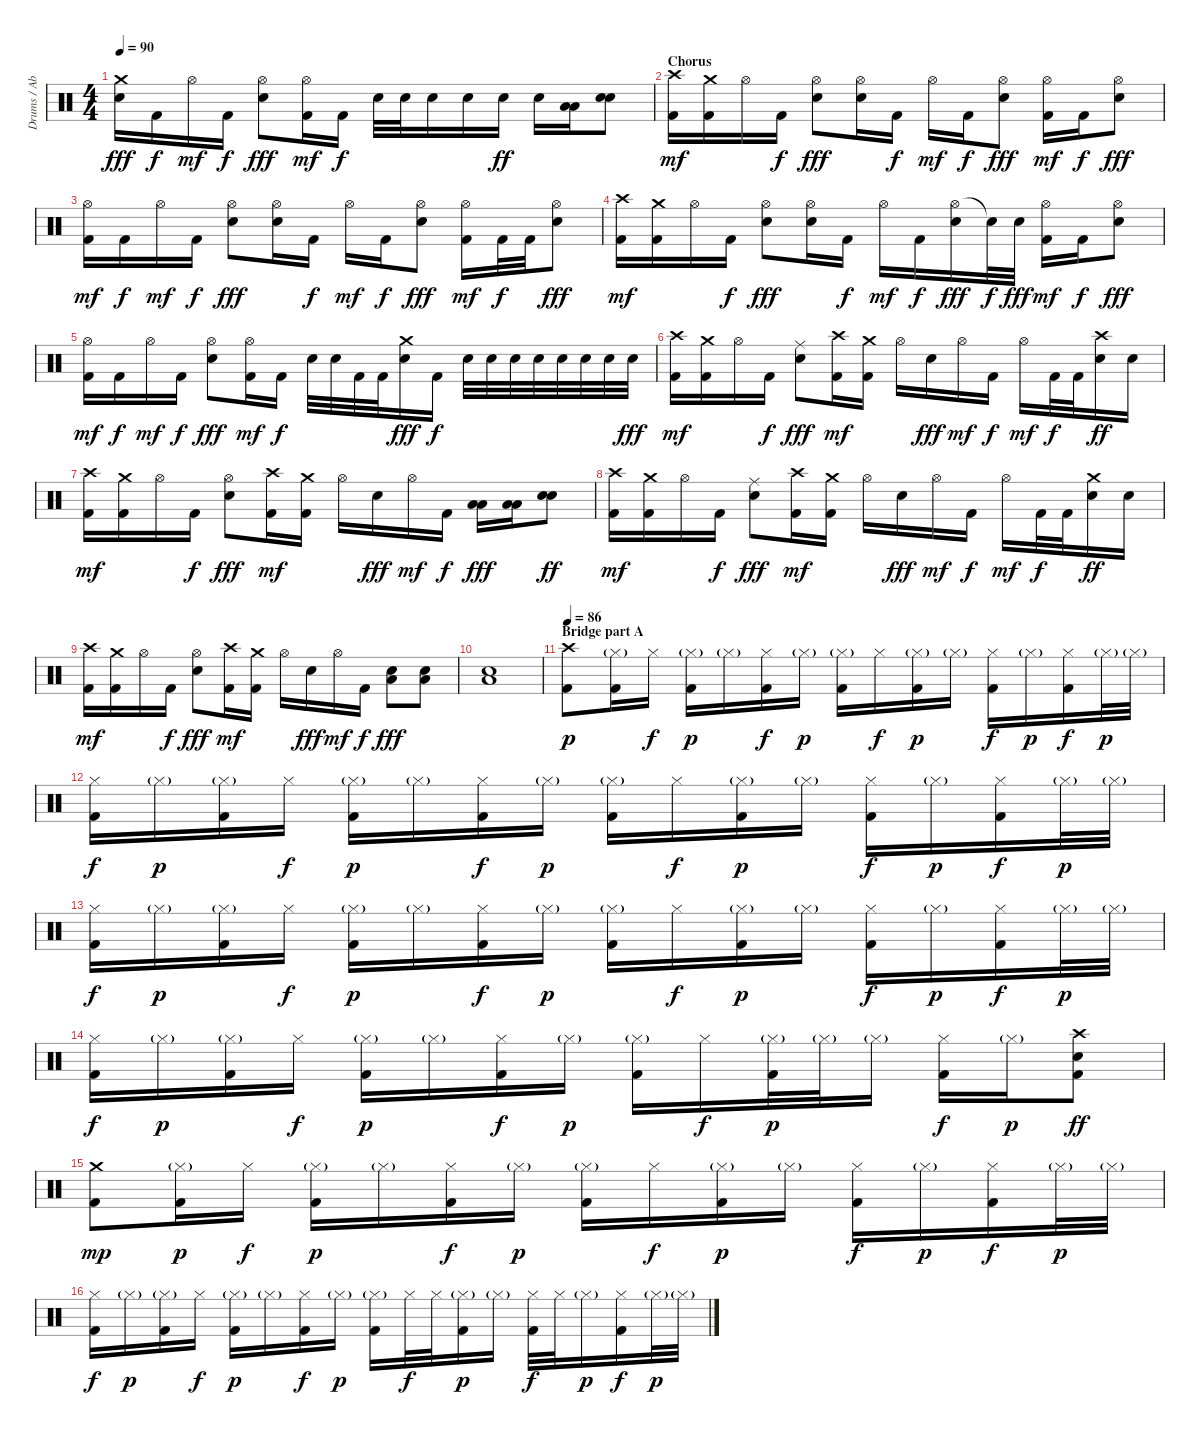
\track ("Drums / Abe Cunningham" "Drums / Ab") {instrument percussion}
\staff {score}
\articulation defaults
\ts (4 4)
\tempo 90
\clef neutral
\ks c
("Crash medium (hit)" "Electric Snare (hit)").16{dy fff} "Kick (hit) 2".16{dy f} "Hi-Hat (open)".16{dy mf} "Kick (hit) 2".16{dy f} ("Hi-Hat (open)" "Electric Snare (hit)").8{dy fff} ("Hi-Hat (open)" "Kick (hit) 2").16{dy mf} "Kick (hit) 2".16{dy f} "Electric Snare (hit)".32 "Electric Snare (hit)".32 "Electric Snare (hit)".16 "Electric Snare (hit)".16 "Electric Snare (hit)".16{dy ff} "Electric Snare (hit)".16 ("Low Tom (hit)" "Low Floor Tom (hit)").16{bd 30} ("Electric Snare (hit)" "Electric Snare (hit)").8{bd 60} |
\section ("" "Chorus")
("Crash high (hit)" "Kick (hit) 2").16{dy mf} ("Crash medium (hit)" "Kick (hit) 2").16 "Hi-Hat (open)".16 "Kick (hit) 2".16{dy f} ("Hi-Hat (open)" "Electric Snare (hit)").8{dy fff} ("Hi-Hat (open)" "Electric Snare (hit)").16 "Kick (hit) 2".16{dy f} "Hi-Hat (open)".16{dy mf} "Kick (hit) 2".16{dy f} ("Hi-Hat (open)" "Electric Snare (hit)").8{dy fff} ("Hi-Hat (open)" "Kick (hit) 2").16{dy mf} "Kick (hit) 2".16{dy f} ("Hi-Hat (open)" "Electric Snare (hit)").8{dy fff} |
("Hi-Hat (open)" "Kick (hit) 2").16{dy mf} "Kick (hit) 2".16{dy f} "Hi-Hat (open)".16{dy mf} "Kick (hit) 2".16{dy f} ("Hi-Hat (open)" "Electric Snare (hit)").8{dy fff} ("Hi-Hat (open)" "Electric Snare (hit)").16 "Kick (hit) 2".16{dy f} "Hi-Hat (open)".16{dy mf} "Kick (hit) 2".16{dy f} ("Hi-Hat (open)" "Electric Snare (hit)").8{dy fff} ("Hi-Hat (open)" "Kick (hit) 2").16{dy mf} "Kick (hit) 2".32{dy f} "Kick (hit) 2".32 ("Hi-Hat (open)" "Electric Snare (hit)").8{dy fff} |
("Crash high (hit)" "Kick (hit) 2").16{dy mf} ("Crash medium (hit)" "Kick (hit) 2").16 "Hi-Hat (open)".16 "Kick (hit) 2".16{dy f} ("Hi-Hat (open)" "Electric Snare (hit)").8{dy fff} ("Hi-Hat (open)" "Electric Snare (hit)").16 "Kick (hit) 2".16{dy f} "Hi-Hat (open)".16{dy mf} "Kick (hit) 2".16{dy f} ("Hi-Hat (open)" "Electric Snare (hit)").16{dy fff} "Snare (hit)"{t}.32{dy f} "Electric Snare (hit)".32{dy fff} ("Hi-Hat (open)" "Kick (hit) 2").16{dy mf} "Kick (hit) 2".16{dy f} ("Hi-Hat (open)" "Electric Snare (hit)").8{dy fff} |
("Hi-Hat (open)" "Kick (hit) 2").16{dy mf} "Kick (hit) 2".16{dy f} "Hi-Hat (open)".16{dy mf} "Kick (hit) 2".16{dy f} ("Hi-Hat (open)" "Electric Snare (hit)").8{dy fff} ("Hi-Hat (open)" "Kick (hit) 2").16{dy mf} "Kick (hit) 2".16{dy f} "Electric Snare (hit)".32 "Electric Snare (hit)".32 "Kick (hit) 2".32 "Kick (hit) 2".32 ("Crash medium (hit)" "Electric Snare (hit)").16{dy fff} "Kick (hit) 2".16{dy f} "Electric Snare (hit)".32 "Electric Snare (hit)".32 "Electric Snare (hit)".32 "Electric Snare (hit)".32 "Electric Snare (hit)".32 "Electric Snare (hit)".32 "Electric Snare (hit)".32 "Electric Snare (hit)".32{dy fff} |
("Crash high (hit)" "Kick (hit) 2").16{dy mf} ("Crash medium (hit)" "Kick (hit) 2").16 "Hi-Hat (open)".16 "Kick (hit) 2".16{dy f} ("Ride (middle)" "Electric Snare (hit)").8{dy fff} ("Crash high (hit)" "Kick (hit) 2").16{dy mf} ("Crash medium (hit)" "Kick (hit) 2").16 "Hi-Hat (open)".16 "Electric Snare (hit)".16{dy fff} "Hi-Hat (open)".16{dy mf} "Kick (hit) 2".16{dy f} "Hi-Hat (open)".16{dy mf} "Kick (hit) 2".32{dy f} "Kick (hit) 2".32 ("Crash high (hit)" "Electric Snare (hit)").16{dy ff} "Electric Snare (hit)".16 |
("Crash high (hit)" "Kick (hit) 2").16{dy mf} ("Crash medium (hit)" "Kick (hit) 2").16 "Hi-Hat (open)".16 "Kick (hit) 2".16{dy f} ("Hi-Hat (open)" "Electric Snare (hit)").8{dy fff} ("Crash high (hit)" "Kick (hit) 2").16{dy mf} ("Crash medium (hit)" "Kick (hit) 2").16 "Hi-Hat (open)".16 "Electric Snare (hit)".16{dy fff} "Hi-Hat (open)".16{dy mf} "Kick (hit) 2".16{dy f} ("Low Tom (hit)" "Low Floor Tom (hit)").16{bd 30 dy fff} ("Low Tom (hit)" "Low Floor Tom (hit)").16{bd 30} ("Electric Snare (hit)" "Electric Snare (hit)").8{bd 60 dy ff} |
("Crash high (hit)" "Kick (hit) 2").16{dy mf} ("Crash medium (hit)" "Kick (hit) 2").16 "Hi-Hat (open)".16 "Kick (hit) 2".16{dy f} ("Ride (middle)" "Electric Snare (hit)").8{dy fff} ("Crash high (hit)" "Kick (hit) 2").16{dy mf} ("Crash medium (hit)" "Kick (hit) 2").16 "Hi-Hat (open)".16 "Electric Snare (hit)".16{dy fff} "Hi-Hat (open)".16{dy mf} "Kick (hit) 2".16{dy f} "Hi-Hat (open)".16{dy mf} "Kick (hit) 2".32{dy f} "Kick (hit) 2".32 ("Crash medium (hit)" "Electric Snare (hit)").16{dy ff} "Electric Snare (hit)".16 |
("Crash high (hit)" "Kick (hit) 2").16{dy mf} ("Crash medium (hit)" "Kick (hit) 2").16 "Hi-Hat (open)".16 "Kick (hit) 2".16{dy f} ("Hi-Hat (open)" "Electric Snare (hit)").8{dy fff} ("Crash high (hit)" "Kick (hit) 2").16{dy mf} ("Crash medium (hit)" "Kick (hit) 2").16 "Hi-Hat (open)".16 "Electric Snare (hit)".16{dy fff} "Hi-Hat (open)".16{dy mf} "Kick (hit) 2".16{dy f} ("Electric Snare (hit)" "Low Floor Tom (hit)").8{bd 30 dy fff} ("Electric Snare (hit)" "Low Floor Tom (hit)").8{bd 30} |
("Electric Snare (hit)" "Low Floor Tom (hit)").1{bd 30} |
\section ("" "Bridge part A")
\tempo 86
("Crash high (hit)" "Kick (hit) 2").8{dy p} ("Hi-Hat (closed)"{g} "Kick (hit) 2").16 "Hi-Hat (closed)".16{dy f} ("Hi-Hat (closed)"{g} "Kick (hit) 2").16{dy p} "Hi-Hat (closed)"{g}.16 ("Hi-Hat (closed)" "Kick (hit) 2").16{dy f} "Hi-Hat (closed)"{g}.16{dy p} ("Hi-Hat (closed)"{g} "Kick (hit) 2").16 "Hi-Hat (closed)".16{dy f} ("Hi-Hat (closed)"{g} "Kick (hit) 2").16{dy p} "Hi-Hat (closed)"{g}.16 ("Hi-Hat (closed)" "Kick (hit) 2").16{dy f} "Hi-Hat (closed)"{g}.16{dy p} ("Hi-Hat (closed)" "Kick (hit) 2").16{dy f} "Hi-Hat (closed)"{g}.32{dy p} "Hi-Hat (closed)"{g}.32 |
("Hi-Hat (closed)" "Kick (hit) 2").16{dy f} "Hi-Hat (closed)"{g}.16{dy p} ("Hi-Hat (closed)"{g} "Kick (hit) 2").16 "Hi-Hat (closed)".16{dy f} ("Hi-Hat (closed)"{g} "Kick (hit) 2").16{dy p} "Hi-Hat (closed)"{g}.16 ("Hi-Hat (closed)" "Kick (hit) 2").16{dy f} "Hi-Hat (closed)"{g}.16{dy p} ("Hi-Hat (closed)"{g} "Kick (hit) 2").16 "Hi-Hat (closed)".16{dy f} ("Hi-Hat (closed)"{g} "Kick (hit) 2").16{dy p} "Hi-Hat (closed)"{g}.16 ("Hi-Hat (closed)" "Kick (hit) 2").16{dy f} "Hi-Hat (closed)"{g}.16{dy p} ("Hi-Hat (closed)" "Kick (hit) 2").16{dy f} "Hi-Hat (closed)"{g}.32{dy p} "Hi-Hat (closed)"{g}.32 |
("Hi-Hat (closed)" "Kick (hit) 2").16{dy f} "Hi-Hat (closed)"{g}.16{dy p} ("Hi-Hat (closed)"{g} "Kick (hit) 2").16 "Hi-Hat (closed)".16{dy f} ("Hi-Hat (closed)"{g} "Kick (hit) 2").16{dy p} "Hi-Hat (closed)"{g}.16 ("Hi-Hat (closed)" "Kick (hit) 2").16{dy f} "Hi-Hat (closed)"{g}.16{dy p} ("Hi-Hat (closed)"{g} "Kick (hit) 2").16 "Hi-Hat (closed)".16{dy f} ("Hi-Hat (closed)"{g} "Kick (hit) 2").16{dy p} "Hi-Hat (closed)"{g}.16 ("Hi-Hat (closed)" "Kick (hit) 2").16{dy f} "Hi-Hat (closed)"{g}.16{dy p} ("Hi-Hat (closed)" "Kick (hit) 2").16{dy f} "Hi-Hat (closed)"{g}.32{dy p} "Hi-Hat (closed)"{g}.32 |
("Hi-Hat (closed)" "Kick (hit) 2").16{dy f} "Hi-Hat (closed)"{g}.16{dy p} ("Hi-Hat (closed)"{g} "Kick (hit) 2").16 "Hi-Hat (closed)".16{dy f} ("Hi-Hat (closed)"{g} "Kick (hit) 2").16{dy p} "Hi-Hat (closed)"{g}.16 ("Hi-Hat (closed)" "Kick (hit) 2").16{dy f} "Hi-Hat (closed)"{g}.16{dy p} ("Hi-Hat (closed)"{g} "Kick (hit) 2").16 "Hi-Hat (closed)".16{dy f} ("Hi-Hat (closed)"{g} "Kick (hit) 2").32{dy p} "Hi-Hat (closed)"{g}.32 "Hi-Hat (closed)"{g}.16 ("Hi-Hat (closed)" "Kick (hit) 2").16{dy f} "Hi-Hat (closed)"{g}.16{dy p} ("Crash high (hit)" "Electric Snare (hit)" "Kick (hit) 2").8{dy ff} |
("Crash medium (hit)" "Kick (hit) 2").8{dy mp} ("Hi-Hat (closed)"{g} "Kick (hit) 2").16{dy p} "Hi-Hat (closed)".16{dy f} ("Hi-Hat (closed)"{g} "Kick (hit) 2").16{dy p} "Hi-Hat (closed)"{g}.16 ("Hi-Hat (closed)" "Kick (hit) 2").16{dy f} "Hi-Hat (closed)"{g}.16{dy p} ("Hi-Hat (closed)"{g} "Kick (hit) 2").16 "Hi-Hat (closed)".16{dy f} ("Hi-Hat (closed)"{g} "Kick (hit) 2").16{dy p} "Hi-Hat (closed)"{g}.16 ("Hi-Hat (closed)" "Kick (hit) 2").16{dy f} "Hi-Hat (closed)"{g}.16{dy p} ("Hi-Hat (closed)" "Kick (hit) 2").16{dy f} "Hi-Hat (closed)"{g}.32{dy p} "Hi-Hat (closed)"{g}.32 |
("Hi-Hat (closed)" "Kick (hit) 2").16{dy f} "Hi-Hat (closed)"{g}.16{dy p} ("Hi-Hat (closed)"{g} "Kick (hit) 2").16 "Hi-Hat (closed)".16{dy f} ("Hi-Hat (closed)"{g} "Kick (hit) 2").16{dy p} "Hi-Hat (closed)"{g}.16 ("Hi-Hat (closed)" "Kick (hit) 2").16{dy f} "Hi-Hat (closed)"{g}.16{dy p} ("Hi-Hat (closed)"{g} "Kick (hit) 2").16 "Hi-Hat (closed)".32{dy f} "Hi-Hat (closed)".32 ("Hi-Hat (closed)"{g} "Kick (hit) 2").16{dy p} "Hi-Hat (closed)"{g}.16 ("Hi-Hat (closed)" "Kick (hit) 2").32{dy f} "Hi-Hat (closed)".32 "Hi-Hat (closed)"{g}.16{dy p} ("Hi-Hat (closed)" "Kick (hit) 2").16{dy f} "Hi-Hat (closed)"{g}.32{dy p} "Hi-Hat (closed)"{g}.32
